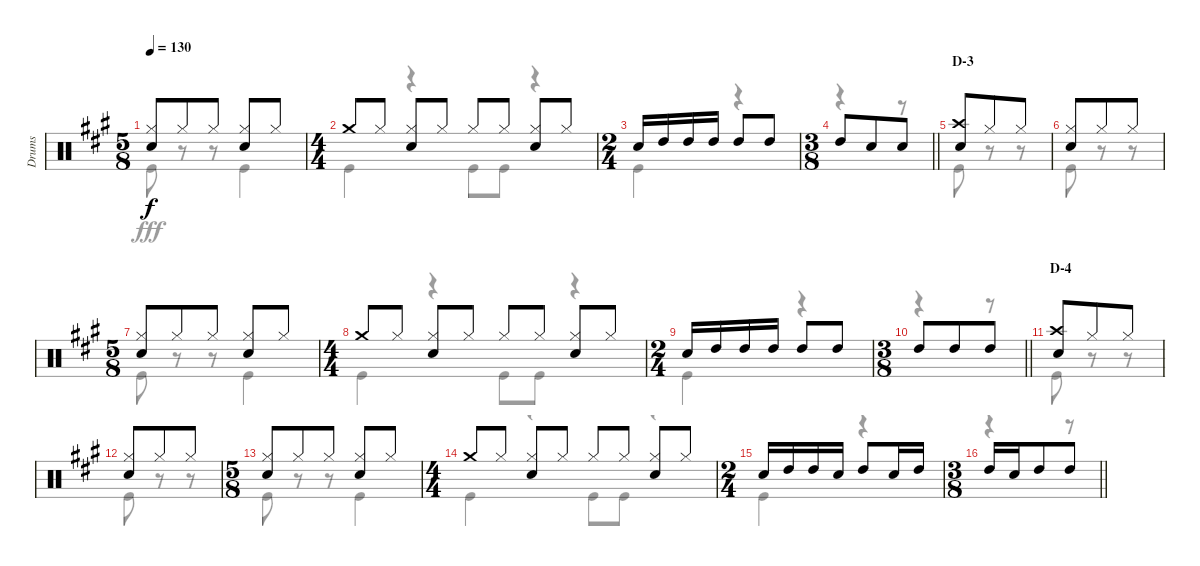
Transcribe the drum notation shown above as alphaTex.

\track ("Drums" "Drums") {instrument percussion}
\staff {score}
\articulation defaults
\voice
\ts (5 8)
\tempo 130
\clef neutral
\ks a
("Hi-Hat (closed)" "Snare (hit) 2").8{dy f} "Hi-Hat (closed)".8 "Hi-Hat (closed)".8 ("Hi-Hat (closed)" "Snare (hit) 2").8 "Hi-Hat (closed)".8 |
\ts (4 4)
"Crash medium (hit)".8 "Hi-Hat (closed)".8 ("Hi-Hat (closed)" "Snare (hit) 2").8 "Hi-Hat (closed)".8 "Hi-Hat (closed)".8 "Hi-Hat (closed)".8 ("Hi-Hat (closed)" "Snare (hit) 2").8 "Hi-Hat (closed)".8 |
\ts (2 4)
"Snare (hit) 2".16 "High Tom (hit)".16 "High Tom (hit)".16 "High Tom (hit)".16 "High Tom (hit)".8 "High Tom (hit)".8 |
\ts (3 8)
\barLineRight lightlight "High Tom (hit)".8 "Snare (hit) 2".8 "Snare (hit) 2".8
|
\section ("" "D-3")
("Crash high (hit)" "Snare (hit) 2").8 "Hi-Hat (closed)".8 "Hi-Hat (closed)".8 |
("Hi-Hat (closed)" "Snare (hit) 2").8 "Hi-Hat (closed)".8 "Hi-Hat (closed)".8 |
\ts (5 8)
("Hi-Hat (closed)" "Snare (hit) 2").8 "Hi-Hat (closed)".8 "Hi-Hat (closed)".8 ("Hi-Hat (closed)" "Snare (hit) 2").8 "Hi-Hat (closed)".8 |
\ts (4 4)
"Crash medium (hit)".8 "Hi-Hat (closed)".8 ("Hi-Hat (closed)" "Snare (hit) 2").8 "Hi-Hat (closed)".8 "Hi-Hat (closed)".8 "Hi-Hat (closed)".8 ("Hi-Hat (closed)" "Snare (hit) 2").8 "Hi-Hat (closed)".8 |
\ts (2 4)
"Snare (hit) 2".16 "High Tom (hit)".16 "High Tom (hit)".16 "High Tom (hit)".16 "High Tom (hit)".8 "High Tom (hit)".8 |
\ts (3 8)
\barLineRight lightlight "High Tom (hit)".8 "High Tom (hit)".8 "High Tom (hit)".8
|
\section ("" "D-4")
("Crash high (hit)" "Snare (hit) 2").8 "Hi-Hat (closed)".8 "Hi-Hat (closed)".8 |
("Hi-Hat (closed)" "Snare (hit) 2").8 "Hi-Hat (closed)".8 "Hi-Hat (closed)".8 |
\ts (5 8)
("Hi-Hat (closed)" "Snare (hit) 2").8 "Hi-Hat (closed)".8 "Hi-Hat (closed)".8 ("Hi-Hat (closed)" "Snare (hit) 2").8 "Hi-Hat (closed)".8 |
\ts (4 4)
"Crash medium (hit)".8 "Hi-Hat (closed)".8 ("Hi-Hat (closed)" "Snare (hit) 2").8 "Hi-Hat (closed)".8 "Hi-Hat (closed)".8 "Hi-Hat (closed)".8 ("Hi-Hat (closed)" "Snare (hit) 2").8 "Hi-Hat (closed)".8 |
\ts (2 4)
"Snare (hit) 2".16 "High Tom (hit)".16 "High Tom (hit)".16 "Snare (hit) 2".16 "High Tom (hit)".8 "Snare (hit) 2".16 "High Tom (hit)".16 |
\ts (3 8)
\barLineRight lightlight "High Tom (hit)".16 "Snare (hit) 2".16 "High Tom (hit)".8 "High Tom (hit)".8
\voice
\clef neutral
\ottava regular
\simile none
\ks a "Kick (hit)".8{dy fff}
r.8 r.8 "Kick (hit)".4 |
"Kick (hit)".4 r.4 "Kick (hit)".8 "Kick (hit)".8 r.4 |
"Kick (hit)".4 r.4 |
\barLineRight lightlight
r.4 r.8 |
"Kick (hit)".8 r.8 r.8 |
"Kick (hit)".8 r.8 r.8 |
"Kick (hit)".8 r.8 r.8 "Kick (hit)".4 |
"Kick (hit)".4 r.4 "Kick (hit)".8 "Kick (hit)".8 r.4 |
"Kick (hit)".4 r.4 |
\barLineRight lightlight
r.4 r.8 |
"Kick (hit)".8 r.8 r.8 |
"Kick (hit)".8 r.8 r.8 |
"Kick (hit)".8 r.8 r.8 "Kick (hit)".4 |
"Kick (hit)".4 r.4 "Kick (hit)".8 "Kick (hit)".8 r.4 |
"Kick (hit)".4 r.4 |
\barLineRight lightlight
r.4 r.8
